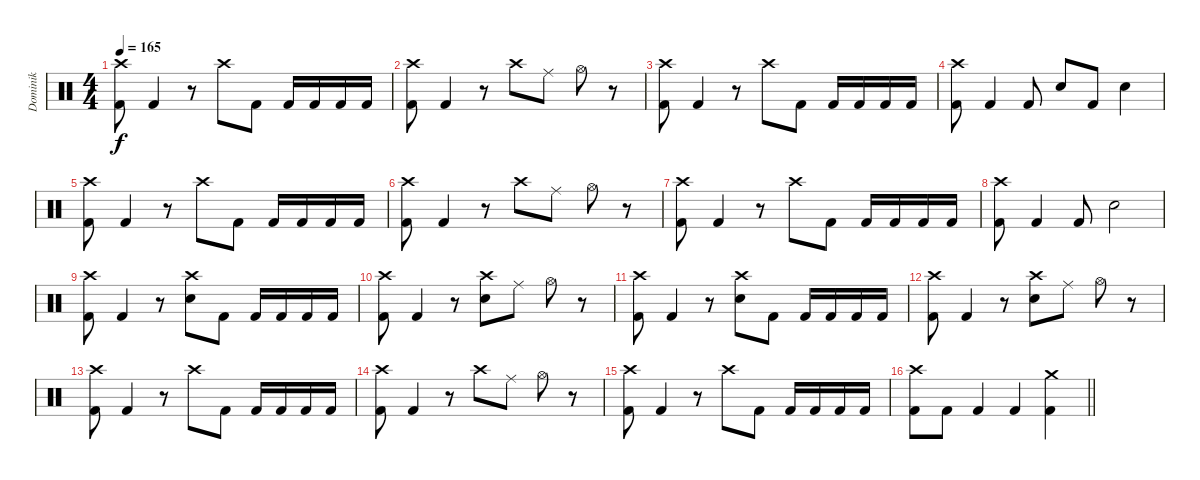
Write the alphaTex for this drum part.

\track ("Dominik" "Dominik") {instrument percussion}
\staff {score}
\articulation defaults
\ts (4 4)
\tempo 165
\clef neutral
\ks c
("Crash high (hit)" "Kick (hit) 2").8{dy f} "Kick (hit) 2".4 r.8 "Crash high (hit)".8 "Kick (hit) 2".8 "Kick (hit) 2".16 "Kick (hit) 2".16 "Kick (hit) 2".16 "Kick (hit) 2".16 |
("Crash high (hit)" "Kick (hit) 2").8 "Kick (hit) 2".4 r.8 "Crash high (hit)".8 "Ride (middle)".8 "Hi-Hat (open)".8 r.8 |
("Crash high (hit)" "Kick (hit) 2").8 "Kick (hit) 2".4 r.8 "Crash high (hit)".8 "Kick (hit) 2".8 "Kick (hit) 2".16 "Kick (hit) 2".16 "Kick (hit) 2".16 "Kick (hit) 2".16 |
("Crash high (hit)" "Kick (hit) 2").8 "Kick (hit) 2".4 "Kick (hit) 2".8 "Electric Snare (hit)".8 "Kick (hit) 2".8 "Electric Snare (hit)".4 |
("Crash high (hit)" "Kick (hit) 2").8 "Kick (hit) 2".4 r.8 "Crash high (hit)".8 "Kick (hit) 2".8 "Kick (hit) 2".16 "Kick (hit) 2".16 "Kick (hit) 2".16 "Kick (hit) 2".16 |
("Crash high (hit)" "Kick (hit) 2").8 "Kick (hit) 2".4 r.8 "Crash high (hit)".8 "Ride (middle)".8 "Hi-Hat (open)".8 r.8 |
("Crash high (hit)" "Kick (hit) 2").8 "Kick (hit) 2".4 r.8 "Crash high (hit)".8 "Kick (hit) 2".8 "Kick (hit) 2".16 "Kick (hit) 2".16 "Kick (hit) 2".16 "Kick (hit) 2".16 |
("Crash high (hit)" "Kick (hit) 2").8 "Kick (hit) 2".4 "Kick (hit) 2".8 "Electric Snare (hit)".2 |
("Crash high (hit)" "Kick (hit) 2").8 "Kick (hit) 2".4 r.8 ("Crash high (hit)" "Electric Snare (hit)").8 "Kick (hit) 2".8 "Kick (hit) 2".16 "Kick (hit) 2".16 "Kick (hit) 2".16 "Kick (hit) 2".16 |
("Crash high (hit)" "Kick (hit) 2").8 "Kick (hit) 2".4 r.8 ("Crash high (hit)" "Electric Snare (hit)").8 "Ride (middle)".8 "Hi-Hat (open)".8 r.8 |
("Crash high (hit)" "Kick (hit) 2").8 "Kick (hit) 2".4 r.8 ("Crash high (hit)" "Electric Snare (hit)").8 "Kick (hit) 2".8 "Kick (hit) 2".16 "Kick (hit) 2".16 "Kick (hit) 2".16 "Kick (hit) 2".16 |
("Crash high (hit)" "Kick (hit) 2").8 "Kick (hit) 2".4 r.8 ("Crash high (hit)" "Electric Snare (hit)").8 "Ride (middle)".8 "Hi-Hat (open)".8 r.8 |
("Crash high (hit)" "Kick (hit) 2").8 "Kick (hit) 2".4 r.8 "Crash high (hit)".8 "Kick (hit) 2".8 "Kick (hit) 2".16 "Kick (hit) 2".16 "Kick (hit) 2".16 "Kick (hit) 2".16 |
("Crash high (hit)" "Kick (hit) 2").8 "Kick (hit) 2".4 r.8 "Crash high (hit)".8 "Ride (middle)".8 "Hi-Hat (open)".8 r.8 |
("Crash high (hit)" "Kick (hit) 2").8 "Kick (hit) 2".4 r.8 "Crash high (hit)".8 "Kick (hit) 2".8 "Kick (hit) 2".16 "Kick (hit) 2".16 "Kick (hit) 2".16 "Kick (hit) 2".16 |
\barLineRight lightlight
("Crash high (hit)" "Kick (hit) 2").8 "Kick (hit) 2".8 "Kick (hit) 2".4 "Kick (hit) 2".4 ("Crash medium (hit)" "Kick (hit) 2").4
